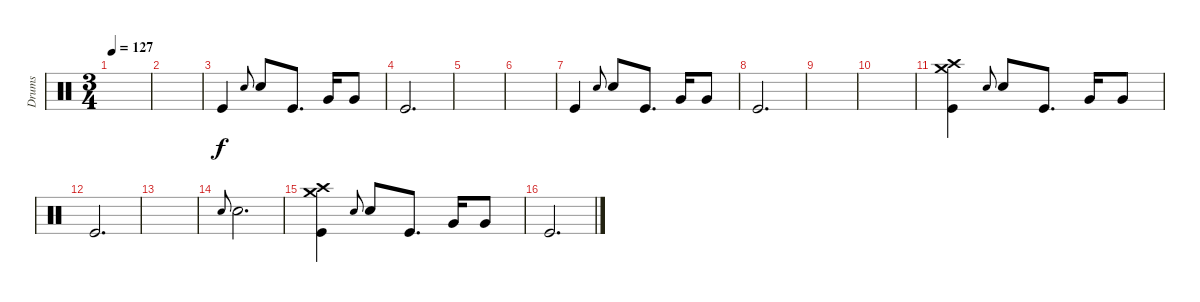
\track ("Drums" "Drums") {instrument percussion}
\staff {score}
\articulation defaults
\ts (3 4)
\tempo 127
\clef neutral
\ks c
|
|
"Kick (hit)".4 "Snare (hit) 2".8{gr onbeat} "Snare (hit) 2".8 "Kick (hit)".8{d} "Very Low Tom (hit)".16 "Very Low Tom (hit)".8 |
"Kick (hit)".2{d} |
|
|
"Kick (hit)".4 "Snare (hit) 2".8{gr onbeat} "Snare (hit) 2".8 "Kick (hit)".8{d} "Very Low Tom (hit)".16 "Very Low Tom (hit)".8 |
"Kick (hit)".2{d} |
|
|
("Crash medium (hit)" "Crash high (hit)" "Kick (hit)").4 "Snare (hit) 2".8{gr onbeat} "Snare (hit) 2".8 "Kick (hit)".8{d} "Very Low Tom (hit)".16 "Very Low Tom (hit)".8 |
"Kick (hit)".2{d} |
|
"Snare (hit) 2".8{gr onbeat} "Snare (hit) 2".2{d} |
("Crash medium (hit)" "Crash high (hit)" "Kick (hit)").4 "Snare (hit) 2".8{gr onbeat} "Snare (hit) 2".8 "Kick (hit)".8{d} "Very Low Tom (hit)".16 "Very Low Tom (hit)".8 |
"Kick (hit)".2{d}
